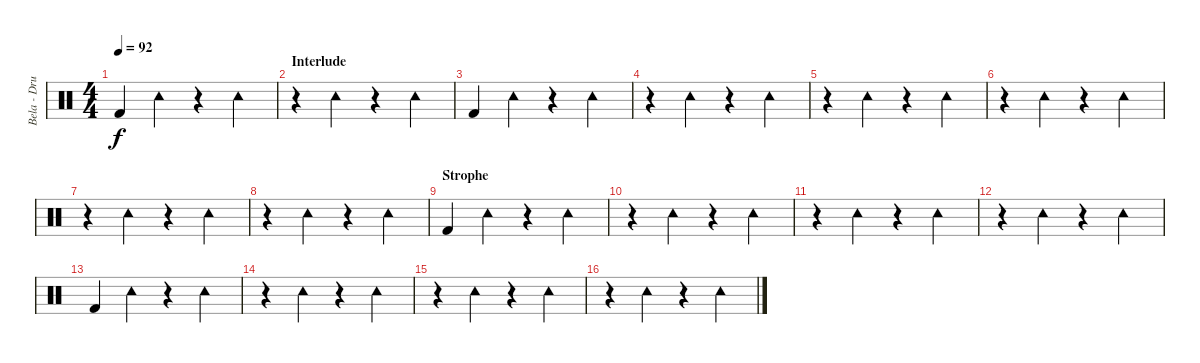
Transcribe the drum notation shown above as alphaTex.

\track ("Bela - Drums" "Bela - Dru") {instrument percussion}
\staff {score}
\articulation defaults
\ts (4 4)
\tempo 92
\clef neutral
\ks c "Kick (hit) 2".4{dy f} "Tambourine (hit)".4
r.4 "Tambourine (hit)".4 |
\section ("" "Interlude")
r.4 "Tambourine (hit)".4 r.4 "Tambourine (hit)".4 |
"Kick (hit) 2".4 "Tambourine (hit)".4 r.4 "Tambourine (hit)".4 |
r.4 "Tambourine (hit)".4 r.4 "Tambourine (hit)".4 |
r.4 "Tambourine (hit)".4 r.4 "Tambourine (hit)".4 |
r.4 "Tambourine (hit)".4 r.4 "Tambourine (hit)".4 |
r.4 "Tambourine (hit)".4 r.4 "Tambourine (hit)".4 |
r.4 "Tambourine (hit)".4 r.4 "Tambourine (hit)".4 |
\section ("" "Strophe")
"Kick (hit) 2".4 "Tambourine (hit)".4 r.4 "Tambourine (hit)".4 |
r.4 "Tambourine (hit)".4 r.4 "Tambourine (hit)".4 |
r.4 "Tambourine (hit)".4 r.4 "Tambourine (hit)".4 |
r.4 "Tambourine (hit)".4 r.4 "Tambourine (hit)".4 |
"Kick (hit) 2".4 "Tambourine (hit)".4 r.4 "Tambourine (hit)".4 |
r.4 "Tambourine (hit)".4 r.4 "Tambourine (hit)".4 |
r.4 "Tambourine (hit)".4 r.4 "Tambourine (hit)".4 |
r.4 "Tambourine (hit)".4 r.4 "Tambourine (hit)".4
